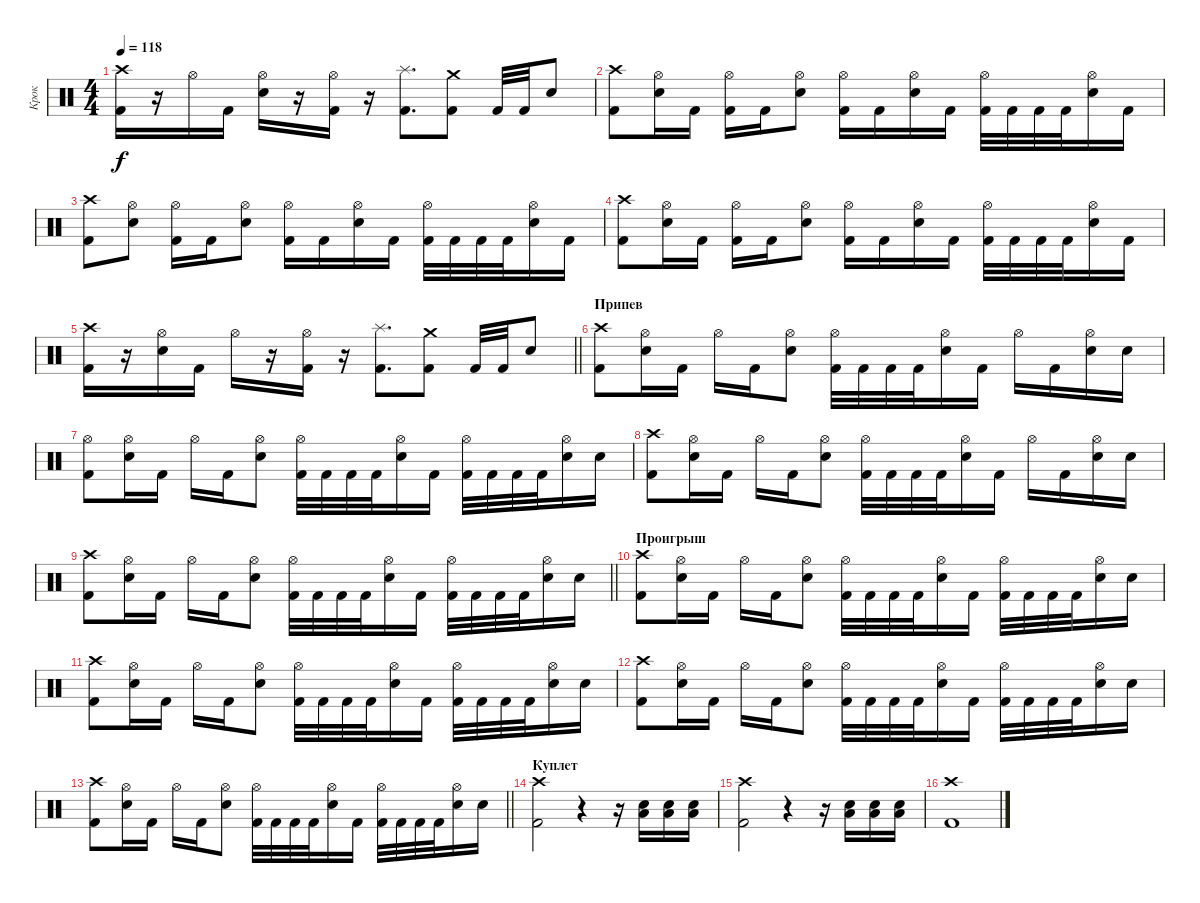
\track ("Крок" "Крок") {instrument percussion}
\staff {score}
\articulation defaults
\ts (4 4)
\tempo 118
\clef neutral
\ks c
("Kick (hit) 2" "Crash high (hit)").16{dy f} r.16 "Hi-Hat (open)".16 "Kick (hit) 2".16 ("Electric Snare (hit)" "Hi-Hat (open)").16 r.16 ("Kick (hit) 2" "Hi-Hat (open)").16 r.16 ("Kick (hit) 2" "Splash (hit)").8{d} ("Kick (hit) 2" "Crash medium (hit)").8 "Kick (hit) 2".32 "Kick (hit) 2".32 "Electric Snare (hit)".8 |
("Kick (hit) 2" "Crash high (hit)").8 ("Electric Snare (hit)" "Hi-Hat (open)").16 "Kick (hit) 2".16 ("Kick (hit) 2" "Hi-Hat (open)").16 "Kick (hit) 2".16 ("Electric Snare (hit)" "Hi-Hat (open)").8 ("Kick (hit) 2" "Hi-Hat (open)").16 "Kick (hit) 2".16 ("Electric Snare (hit)" "Hi-Hat (open)").16 "Kick (hit) 2".16 ("Kick (hit) 2" "Hi-Hat (open)").32 "Kick (hit) 2".32 "Kick (hit) 2".32 "Kick (hit) 2".32 ("Electric Snare (hit)" "Hi-Hat (open)").16 "Kick (hit) 2".16 |
("Kick (hit) 2" "Crash high (hit)").8 ("Electric Snare (hit)" "Hi-Hat (open)").8 ("Kick (hit) 2" "Hi-Hat (open)").16 "Kick (hit) 2".16 ("Electric Snare (hit)" "Hi-Hat (open)").8 ("Kick (hit) 2" "Hi-Hat (open)").16 "Kick (hit) 2".16 ("Electric Snare (hit)" "Hi-Hat (open)").16 "Kick (hit) 2".16 ("Kick (hit) 2" "Hi-Hat (open)").32 "Kick (hit) 2".32 "Kick (hit) 2".32 "Kick (hit) 2".32 ("Electric Snare (hit)" "Hi-Hat (open)").16 "Kick (hit) 2".16 |
("Kick (hit) 2" "Crash high (hit)").8 ("Electric Snare (hit)" "Hi-Hat (open)").16 "Kick (hit) 2".16 ("Kick (hit) 2" "Hi-Hat (open)").16 "Kick (hit) 2".16 ("Electric Snare (hit)" "Hi-Hat (open)").8 ("Kick (hit) 2" "Hi-Hat (open)").16 "Kick (hit) 2".16 ("Electric Snare (hit)" "Hi-Hat (open)").16 "Kick (hit) 2".16 ("Kick (hit) 2" "Hi-Hat (open)").32 "Kick (hit) 2".32 "Kick (hit) 2".32 "Kick (hit) 2".32 ("Electric Snare (hit)" "Hi-Hat (open)").16 "Kick (hit) 2".16 |
\barLineRight lightlight
("Kick (hit) 2" "Crash high (hit)").16 r.16 ("Electric Snare (hit)" "Hi-Hat (open)").16 "Kick (hit) 2".16 "Hi-Hat (open)".16 r.16 ("Kick (hit) 2" "Hi-Hat (open)").16 r.16 ("Kick (hit) 2" "Splash (hit)").8{d} ("Kick (hit) 2" "Crash medium (hit)").8 "Kick (hit) 2".32 "Kick (hit) 2".32 "Electric Snare (hit)".8 |
\section ("" "Припев")
("Kick (hit) 2" "Crash high (hit)").8 ("Electric Snare (hit)" "Hi-Hat (open)").16 "Kick (hit) 2".16 "Hi-Hat (open)".16 "Kick (hit) 2".16 ("Electric Snare (hit)" "Hi-Hat (open)").8 ("Kick (hit) 2" "Hi-Hat (open)").32 "Kick (hit) 2".32 "Kick (hit) 2".32 "Kick (hit) 2".32 ("Electric Snare (hit)" "Hi-Hat (open)").16 "Kick (hit) 2".16 "Hi-Hat (open)".16 "Kick (hit) 2".16 ("Electric Snare (hit)" "Hi-Hat (open)").16 "Electric Snare (hit)".16 |
("Kick (hit) 2" "Hi-Hat (open)").8 ("Electric Snare (hit)" "Hi-Hat (open)").16 "Kick (hit) 2".16 "Hi-Hat (open)".16 "Kick (hit) 2".16 ("Electric Snare (hit)" "Hi-Hat (open)").8 ("Kick (hit) 2" "Hi-Hat (open)").32 "Kick (hit) 2".32 "Kick (hit) 2".32 "Kick (hit) 2".32 ("Electric Snare (hit)" "Hi-Hat (open)").16 "Kick (hit) 2".16 ("Kick (hit) 2" "Hi-Hat (open)").32 "Kick (hit) 2".32 "Kick (hit) 2".32 "Kick (hit) 2".32 ("Electric Snare (hit)" "Hi-Hat (open)").16 "Electric Snare (hit)".16 |
("Kick (hit) 2" "Crash high (hit)").8 ("Electric Snare (hit)" "Hi-Hat (open)").16 "Kick (hit) 2".16 "Hi-Hat (open)".16 "Kick (hit) 2".16 ("Electric Snare (hit)" "Hi-Hat (open)").8 ("Kick (hit) 2" "Hi-Hat (open)").32 "Kick (hit) 2".32 "Kick (hit) 2".32 "Kick (hit) 2".32 ("Electric Snare (hit)" "Hi-Hat (open)").16 "Kick (hit) 2".16 "Hi-Hat (open)".16 "Kick (hit) 2".16 ("Electric Snare (hit)" "Hi-Hat (open)").16 "Electric Snare (hit)".16 |
\barLineRight lightlight
("Kick (hit) 2" "Crash high (hit)").8 ("Electric Snare (hit)" "Hi-Hat (open)").16 "Kick (hit) 2".16 "Hi-Hat (open)".16 "Kick (hit) 2".16 ("Electric Snare (hit)" "Hi-Hat (open)").8 ("Kick (hit) 2" "Hi-Hat (open)").32 "Kick (hit) 2".32 "Kick (hit) 2".32 "Kick (hit) 2".32 ("Electric Snare (hit)" "Hi-Hat (open)").16 "Kick (hit) 2".16 ("Kick (hit) 2" "Hi-Hat (open)").32 "Kick (hit) 2".32 "Kick (hit) 2".32 "Kick (hit) 2".32 ("Electric Snare (hit)" "Hi-Hat (open)").16 "Electric Snare (hit)".16 |
\section ("" "Проигрыш")
("Kick (hit) 2" "Crash high (hit)").8 ("Electric Snare (hit)" "Hi-Hat (open)").16 "Kick (hit) 2".16 "Hi-Hat (open)".16 "Kick (hit) 2".16 ("Electric Snare (hit)" "Hi-Hat (open)").8 ("Kick (hit) 2" "Hi-Hat (open)").32 "Kick (hit) 2".32 "Kick (hit) 2".32 "Kick (hit) 2".32 ("Electric Snare (hit)" "Hi-Hat (open)").16 "Kick (hit) 2".16 ("Kick (hit) 2" "Hi-Hat (open)").32 "Kick (hit) 2".32 "Kick (hit) 2".32 "Kick (hit) 2".32 ("Electric Snare (hit)" "Hi-Hat (open)").16 "Electric Snare (hit)".16 |
("Kick (hit) 2" "Crash high (hit)").8 ("Electric Snare (hit)" "Hi-Hat (open)").16 "Kick (hit) 2".16 "Hi-Hat (open)".16 "Kick (hit) 2".16 ("Electric Snare (hit)" "Hi-Hat (open)").8 ("Kick (hit) 2" "Hi-Hat (open)").32 "Kick (hit) 2".32 "Kick (hit) 2".32 "Kick (hit) 2".32 ("Electric Snare (hit)" "Hi-Hat (open)").16 "Kick (hit) 2".16 ("Kick (hit) 2" "Hi-Hat (open)").32 "Kick (hit) 2".32 "Kick (hit) 2".32 "Kick (hit) 2".32 ("Electric Snare (hit)" "Hi-Hat (open)").16 "Electric Snare (hit)".16 |
("Kick (hit) 2" "Crash high (hit)").8 ("Electric Snare (hit)" "Hi-Hat (open)").16 "Kick (hit) 2".16 "Hi-Hat (open)".16 "Kick (hit) 2".16 ("Electric Snare (hit)" "Hi-Hat (open)").8 ("Kick (hit) 2" "Hi-Hat (open)").32 "Kick (hit) 2".32 "Kick (hit) 2".32 "Kick (hit) 2".32 ("Electric Snare (hit)" "Hi-Hat (open)").16 "Kick (hit) 2".16 ("Kick (hit) 2" "Hi-Hat (open)").32 "Kick (hit) 2".32 "Kick (hit) 2".32 "Kick (hit) 2".32 ("Electric Snare (hit)" "Hi-Hat (open)").16 "Electric Snare (hit)".16 |
\barLineRight lightlight
("Kick (hit) 2" "Crash high (hit)").8 ("Electric Snare (hit)" "Hi-Hat (open)").16 "Kick (hit) 2".16 "Hi-Hat (open)".16 "Kick (hit) 2".16 ("Electric Snare (hit)" "Hi-Hat (open)").8 ("Kick (hit) 2" "Hi-Hat (open)").32 "Kick (hit) 2".32 "Kick (hit) 2".32 "Kick (hit) 2".32 ("Electric Snare (hit)" "Hi-Hat (open)").16 "Kick (hit) 2".16 ("Kick (hit) 2" "Hi-Hat (open)").32 "Kick (hit) 2".32 "Kick (hit) 2".32 "Kick (hit) 2".32 ("Electric Snare (hit)" "Hi-Hat (open)").16 "Electric Snare (hit)".16 |
\section ("" "Куплет")
("Crash high (hit)" "Kick (hit) 2").2 r.4 r.16 ("Electric Snare (hit)" "Low Floor Tom (hit)").16 ("Electric Snare (hit)" "Low Floor Tom (hit)").16 ("Electric Snare (hit)" "Low Floor Tom (hit)").16 |
("Crash high (hit)" "Kick (hit) 2").2 r.4 r.16 ("Electric Snare (hit)" "Low Floor Tom (hit)").16 ("Electric Snare (hit)" "Low Floor Tom (hit)").16 ("Electric Snare (hit)" "Low Floor Tom (hit)").16 |
("Crash high (hit)" "Kick (hit) 2").1
